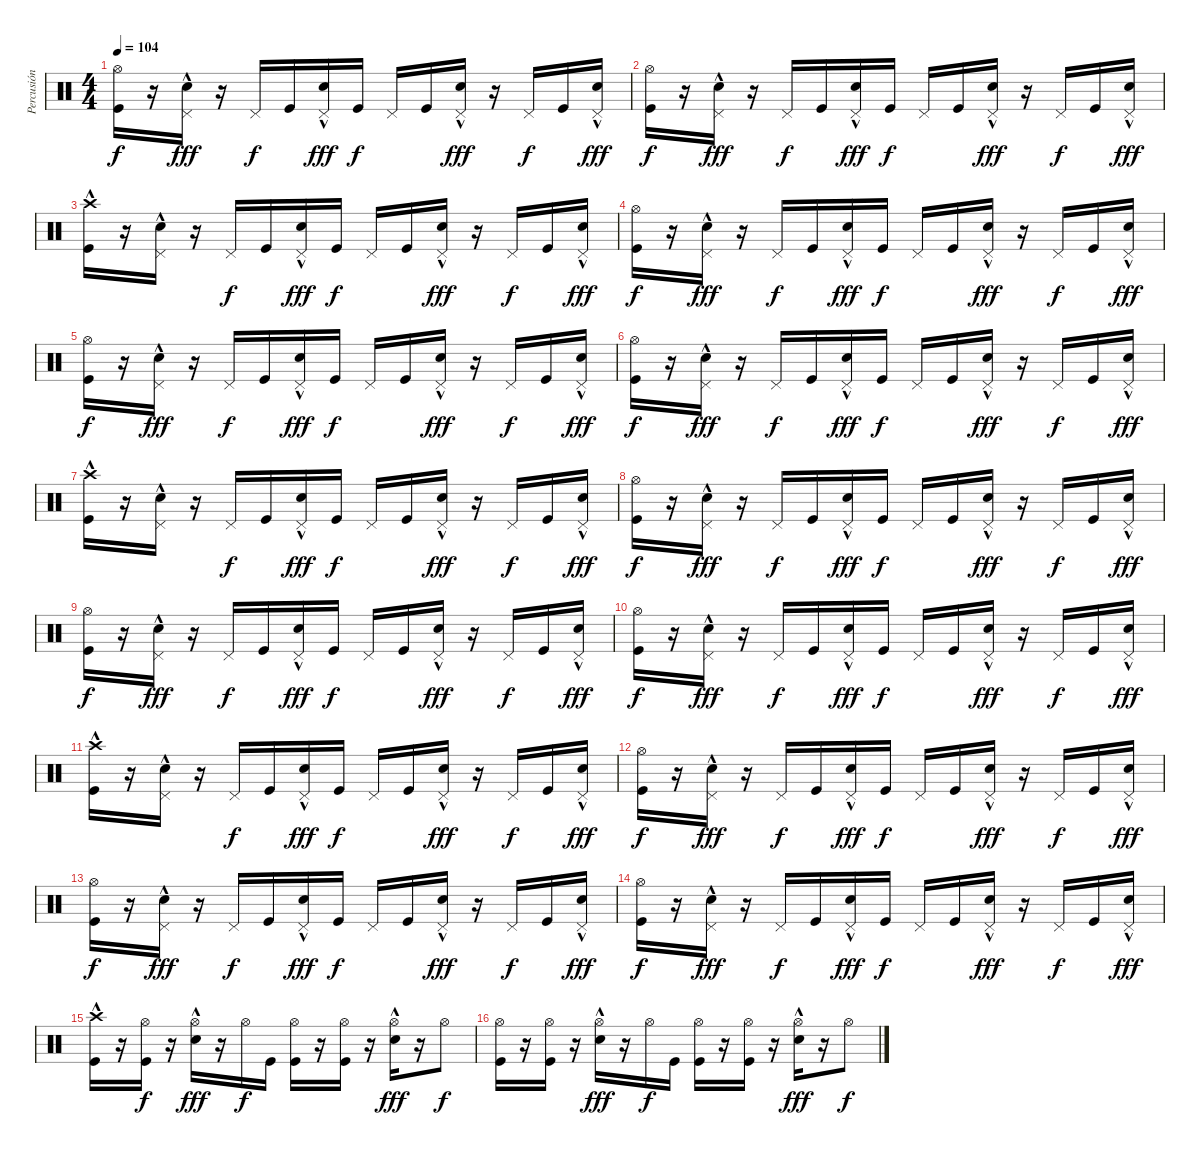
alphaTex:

\track ("Percusión" "Percusión") {instrument percussion}
\staff {score}
\articulation defaults
\ts (4 4)
\tempo 104
\clef neutral
\ks c
("Hi-Hat (open)" "Kick (hit)").16{dy f} r.16 ("Pedal Hi-Hat (hit)" "Snare (hit) 2"{hac}).16{dy fff} r.16 "Pedal Hi-Hat (hit)".16{dy f} "Kick (hit)".16 ("Pedal Hi-Hat (hit)" "Snare (hit) 2"{hac}).16{dy fff} "Kick (hit)".16{dy f} "Pedal Hi-Hat (hit)".16 "Kick (hit)".16 ("Pedal Hi-Hat (hit)" "Snare (hit) 2"{hac}).16{dy fff} r.16 "Pedal Hi-Hat (hit)".16{dy f} "Kick (hit)".16 ("Pedal Hi-Hat (hit)" "Snare (hit) 2"{hac}).16{dy fff} |
("Hi-Hat (open)" "Kick (hit)").16{dy f} r.16 ("Pedal Hi-Hat (hit)" "Snare (hit) 2"{hac}).16{dy fff} r.16 "Pedal Hi-Hat (hit)".16{dy f} "Kick (hit)".16 ("Pedal Hi-Hat (hit)" "Snare (hit) 2"{hac}).16{dy fff} "Kick (hit)".16{dy f} "Pedal Hi-Hat (hit)".16 "Kick (hit)".16 ("Pedal Hi-Hat (hit)" "Snare (hit) 2"{hac}).16{dy fff} r.16 "Pedal Hi-Hat (hit)".16{dy f} "Kick (hit)".16 ("Pedal Hi-Hat (hit)" "Snare (hit) 2"{hac}).16{dy fff} |
("Crash high (hit)"{hac} "Kick (hit)").16 r.16 ("Pedal Hi-Hat (hit)" "Snare (hit) 2"{hac}).16 r.16 "Pedal Hi-Hat (hit)".16{dy f} "Kick (hit)".16 ("Pedal Hi-Hat (hit)" "Snare (hit) 2"{hac}).16{dy fff} "Kick (hit)".16{dy f} "Pedal Hi-Hat (hit)".16 "Kick (hit)".16 ("Pedal Hi-Hat (hit)" "Snare (hit) 2"{hac}).16{dy fff} r.16 "Pedal Hi-Hat (hit)".16{dy f} "Kick (hit)".16 ("Pedal Hi-Hat (hit)" "Snare (hit) 2"{hac}).16{dy fff} |
("Hi-Hat (open)" "Kick (hit)").16{dy f} r.16 ("Pedal Hi-Hat (hit)" "Snare (hit) 2"{hac}).16{dy fff} r.16 "Pedal Hi-Hat (hit)".16{dy f} "Kick (hit)".16 ("Pedal Hi-Hat (hit)" "Snare (hit) 2"{hac}).16{dy fff} "Kick (hit)".16{dy f} "Pedal Hi-Hat (hit)".16 "Kick (hit)".16 ("Pedal Hi-Hat (hit)" "Snare (hit) 2"{hac}).16{dy fff} r.16 "Pedal Hi-Hat (hit)".16{dy f} "Kick (hit)".16 ("Pedal Hi-Hat (hit)" "Snare (hit) 2"{hac}).16{dy fff} |
("Hi-Hat (open)" "Kick (hit)").16{dy f} r.16 ("Pedal Hi-Hat (hit)" "Snare (hit) 2"{hac}).16{dy fff} r.16 "Pedal Hi-Hat (hit)".16{dy f} "Kick (hit)".16 ("Pedal Hi-Hat (hit)" "Snare (hit) 2"{hac}).16{dy fff} "Kick (hit)".16{dy f} "Pedal Hi-Hat (hit)".16 "Kick (hit)".16 ("Pedal Hi-Hat (hit)" "Snare (hit) 2"{hac}).16{dy fff} r.16 "Pedal Hi-Hat (hit)".16{dy f} "Kick (hit)".16 ("Pedal Hi-Hat (hit)" "Snare (hit) 2"{hac}).16{dy fff} |
("Hi-Hat (open)" "Kick (hit)").16{dy f} r.16 ("Pedal Hi-Hat (hit)" "Snare (hit) 2"{hac}).16{dy fff} r.16 "Pedal Hi-Hat (hit)".16{dy f} "Kick (hit)".16 ("Pedal Hi-Hat (hit)" "Snare (hit) 2"{hac}).16{dy fff} "Kick (hit)".16{dy f} "Pedal Hi-Hat (hit)".16 "Kick (hit)".16 ("Pedal Hi-Hat (hit)" "Snare (hit) 2"{hac}).16{dy fff} r.16 "Pedal Hi-Hat (hit)".16{dy f} "Kick (hit)".16 ("Pedal Hi-Hat (hit)" "Snare (hit) 2"{hac}).16{dy fff} |
("Crash high (hit)"{hac} "Kick (hit)").16 r.16 ("Pedal Hi-Hat (hit)" "Snare (hit) 2"{hac}).16 r.16 "Pedal Hi-Hat (hit)".16{dy f} "Kick (hit)".16 ("Pedal Hi-Hat (hit)" "Snare (hit) 2"{hac}).16{dy fff} "Kick (hit)".16{dy f} "Pedal Hi-Hat (hit)".16 "Kick (hit)".16 ("Pedal Hi-Hat (hit)" "Snare (hit) 2"{hac}).16{dy fff} r.16 "Pedal Hi-Hat (hit)".16{dy f} "Kick (hit)".16 ("Pedal Hi-Hat (hit)" "Snare (hit) 2"{hac}).16{dy fff} |
("Hi-Hat (open)" "Kick (hit)").16{dy f} r.16 ("Pedal Hi-Hat (hit)" "Snare (hit) 2"{hac}).16{dy fff} r.16 "Pedal Hi-Hat (hit)".16{dy f} "Kick (hit)".16 ("Pedal Hi-Hat (hit)" "Snare (hit) 2"{hac}).16{dy fff} "Kick (hit)".16{dy f} "Pedal Hi-Hat (hit)".16 "Kick (hit)".16 ("Pedal Hi-Hat (hit)" "Snare (hit) 2"{hac}).16{dy fff} r.16 "Pedal Hi-Hat (hit)".16{dy f} "Kick (hit)".16 ("Pedal Hi-Hat (hit)" "Snare (hit) 2"{hac}).16{dy fff} |
("Hi-Hat (open)" "Kick (hit)").16{dy f} r.16 ("Pedal Hi-Hat (hit)" "Snare (hit) 2"{hac}).16{dy fff} r.16 "Pedal Hi-Hat (hit)".16{dy f} "Kick (hit)".16 ("Pedal Hi-Hat (hit)" "Snare (hit) 2"{hac}).16{dy fff} "Kick (hit)".16{dy f} "Pedal Hi-Hat (hit)".16 "Kick (hit)".16 ("Pedal Hi-Hat (hit)" "Snare (hit) 2"{hac}).16{dy fff} r.16 "Pedal Hi-Hat (hit)".16{dy f} "Kick (hit)".16 ("Pedal Hi-Hat (hit)" "Snare (hit) 2"{hac}).16{dy fff} |
("Hi-Hat (open)" "Kick (hit)").16{dy f} r.16 ("Pedal Hi-Hat (hit)" "Snare (hit) 2"{hac}).16{dy fff} r.16 "Pedal Hi-Hat (hit)".16{dy f} "Kick (hit)".16 ("Pedal Hi-Hat (hit)" "Snare (hit) 2"{hac}).16{dy fff} "Kick (hit)".16{dy f} "Pedal Hi-Hat (hit)".16 "Kick (hit)".16 ("Pedal Hi-Hat (hit)" "Snare (hit) 2"{hac}).16{dy fff} r.16 "Pedal Hi-Hat (hit)".16{dy f} "Kick (hit)".16 ("Pedal Hi-Hat (hit)" "Snare (hit) 2"{hac}).16{dy fff} |
("Crash high (hit)"{hac} "Kick (hit)").16 r.16 ("Pedal Hi-Hat (hit)" "Snare (hit) 2"{hac}).16 r.16 "Pedal Hi-Hat (hit)".16{dy f} "Kick (hit)".16 ("Pedal Hi-Hat (hit)" "Snare (hit) 2"{hac}).16{dy fff} "Kick (hit)".16{dy f} "Pedal Hi-Hat (hit)".16 "Kick (hit)".16 ("Pedal Hi-Hat (hit)" "Snare (hit) 2"{hac}).16{dy fff} r.16 "Pedal Hi-Hat (hit)".16{dy f} "Kick (hit)".16 ("Pedal Hi-Hat (hit)" "Snare (hit) 2"{hac}).16{dy fff} |
("Hi-Hat (open)" "Kick (hit)").16{dy f} r.16 ("Pedal Hi-Hat (hit)" "Snare (hit) 2"{hac}).16{dy fff} r.16 "Pedal Hi-Hat (hit)".16{dy f} "Kick (hit)".16 ("Pedal Hi-Hat (hit)" "Snare (hit) 2"{hac}).16{dy fff} "Kick (hit)".16{dy f} "Pedal Hi-Hat (hit)".16 "Kick (hit)".16 ("Pedal Hi-Hat (hit)" "Snare (hit) 2"{hac}).16{dy fff} r.16 "Pedal Hi-Hat (hit)".16{dy f} "Kick (hit)".16 ("Pedal Hi-Hat (hit)" "Snare (hit) 2"{hac}).16{dy fff} |
("Hi-Hat (open)" "Kick (hit)").16{dy f} r.16 ("Pedal Hi-Hat (hit)" "Snare (hit) 2"{hac}).16{dy fff} r.16 "Pedal Hi-Hat (hit)".16{dy f} "Kick (hit)".16 ("Pedal Hi-Hat (hit)" "Snare (hit) 2"{hac}).16{dy fff} "Kick (hit)".16{dy f} "Pedal Hi-Hat (hit)".16 "Kick (hit)".16 ("Pedal Hi-Hat (hit)" "Snare (hit) 2"{hac}).16{dy fff} r.16 "Pedal Hi-Hat (hit)".16{dy f} "Kick (hit)".16 ("Pedal Hi-Hat (hit)" "Snare (hit) 2"{hac}).16{dy fff} |
("Hi-Hat (open)" "Kick (hit)").16{dy f} r.16 ("Pedal Hi-Hat (hit)" "Snare (hit) 2"{hac}).16{dy fff} r.16 "Pedal Hi-Hat (hit)".16{dy f} "Kick (hit)".16 ("Pedal Hi-Hat (hit)" "Snare (hit) 2"{hac}).16{dy fff} "Kick (hit)".16{dy f} "Pedal Hi-Hat (hit)".16 "Kick (hit)".16 ("Pedal Hi-Hat (hit)" "Snare (hit) 2"{hac}).16{dy fff} r.16 "Pedal Hi-Hat (hit)".16{dy f} "Kick (hit)".16 ("Pedal Hi-Hat (hit)" "Snare (hit) 2"{hac}).16{dy fff} |
("Crash high (hit)"{hac} "Kick (hit)").16 r.16 ("Hi-Hat (open)" "Kick (hit)").16{dy f} r.16 ("Hi-Hat (open)" "Snare (hit) 2"{hac}).16{dy fff} r.16 "Hi-Hat (open)".16{dy f} "Kick (hit)".16 ("Hi-Hat (open)" "Kick (hit)").16 r.16 ("Hi-Hat (open)" "Kick (hit)").16 r.16 ("Hi-Hat (open)" "Snare (hit) 2"{hac}).16{dy fff} r.16 "Hi-Hat (open)".8{dy f} |
("Hi-Hat (open)" "Kick (hit)").16 r.16 ("Hi-Hat (open)" "Kick (hit)").16 r.16 ("Hi-Hat (open)" "Snare (hit) 2"{hac}).16{dy fff} r.16 "Hi-Hat (open)".16{dy f} "Kick (hit)".16 ("Hi-Hat (open)" "Kick (hit)").16 r.16 ("Hi-Hat (open)" "Kick (hit)").16 r.16 ("Hi-Hat (open)" "Snare (hit) 2"{hac}).16{dy fff} r.16 "Hi-Hat (open)".8{dy f}
